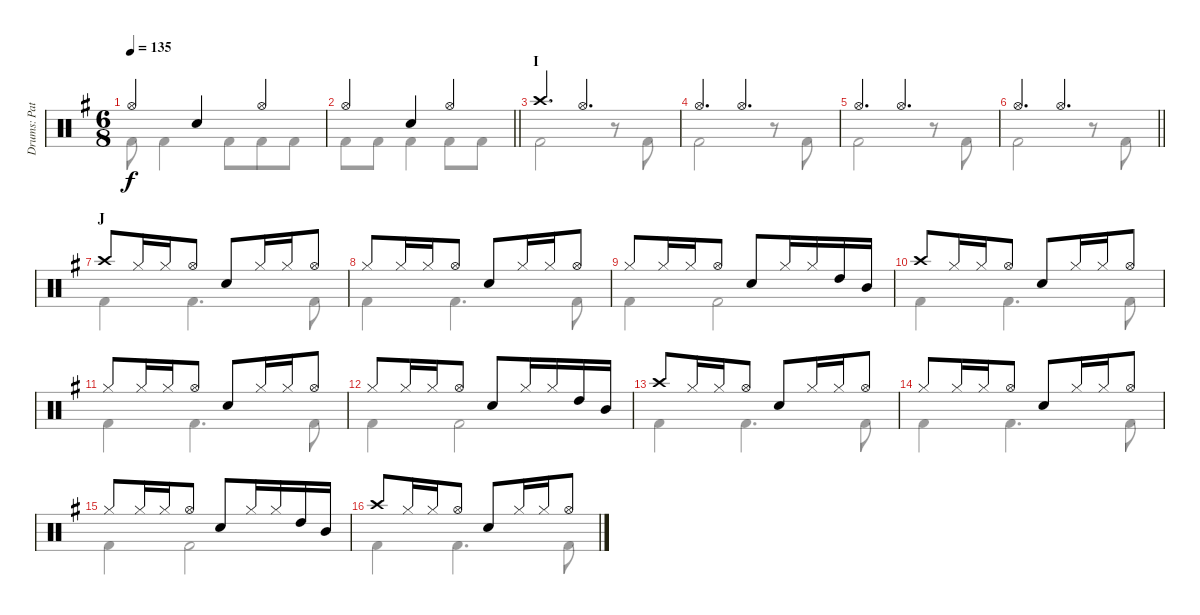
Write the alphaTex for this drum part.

\track ("Drums: Pat" "Drums: Pat") {instrument percussion}
\staff {score}
\articulation defaults
\voice
\ts (6 8)
\tempo 135
\clef neutral
\ks g "Hi-Hat (open)".4{dy f} "Snare (hit) 2".4 "Hi-Hat (open)".4
|
\barLineRight lightlight "Hi-Hat (open)".4 "Snare (hit) 2".4 "Hi-Hat (open)".4
|
\section ("" "I")
"Crash high (hit)".4{d} "Hi-Hat (open)"{acc b}.4{d} |
"Hi-Hat (open)".4{d} "Hi-Hat (open)".4{d} |
"Hi-Hat (open)".4{d} "Hi-Hat (open)"{acc b}.4{d} |
\barLineRight lightlight "Hi-Hat (open)".4{d} "Hi-Hat (open)".4{d}
|
\section ("" "J")
"Crash high (hit)".8 "Hi-Hat (closed)".16 "Hi-Hat (closed)".16 "Hi-Hat (open)".8 "Snare (hit) 2".8 "Hi-Hat (closed)".16 "Hi-Hat (closed)".16 "Hi-Hat (open)".8 |
"Hi-Hat (closed)".8 "Hi-Hat (closed)".16 "Hi-Hat (closed)".16 "Hi-Hat (open)".8 "Snare (hit) 2".8 "Hi-Hat (closed)".16 "Hi-Hat (closed)".16 "Hi-Hat (open)".8 |
"Hi-Hat (closed)".8 "Hi-Hat (closed)".16 "Hi-Hat (closed)".16 "Hi-Hat (open)".8 "Snare (hit) 2".8 "Hi-Hat (closed)".16 "Hi-Hat (closed)".16 "High Tom (hit)".16 "Mid Tom (hit)".16 |
"Crash high (hit)".8 "Hi-Hat (closed)".16 "Hi-Hat (closed)".16 "Hi-Hat (open)".8 "Snare (hit) 2".8 "Hi-Hat (closed)".16 "Hi-Hat (closed)".16 "Hi-Hat (open)".8 |
"Hi-Hat (closed)".8 "Hi-Hat (closed)".16 "Hi-Hat (closed)".16 "Hi-Hat (open)".8 "Snare (hit) 2".8 "Hi-Hat (closed)".16 "Hi-Hat (closed)".16 "Hi-Hat (open)".8 |
"Hi-Hat (closed)".8 "Hi-Hat (closed)".16 "Hi-Hat (closed)".16 "Hi-Hat (open)".8 "Snare (hit) 2".8 "Hi-Hat (closed)".16 "Hi-Hat (closed)".16 "High Tom (hit)".16 "Mid Tom (hit)".16 |
"Crash high (hit)".8 "Hi-Hat (closed)".16 "Hi-Hat (closed)".16 "Hi-Hat (open)".8 "Snare (hit) 2".8 "Hi-Hat (closed)".16 "Hi-Hat (closed)".16 "Hi-Hat (open)".8 |
"Hi-Hat (closed)".8 "Hi-Hat (closed)".16 "Hi-Hat (closed)".16 "Hi-Hat (open)".8 "Snare (hit) 2".8 "Hi-Hat (closed)".16 "Hi-Hat (closed)".16 "Hi-Hat (open)".8 |
"Hi-Hat (closed)".8 "Hi-Hat (closed)".16 "Hi-Hat (closed)".16 "Hi-Hat (open)".8 "Snare (hit) 2".8 "Hi-Hat (closed)".16 "Hi-Hat (closed)".16 "High Tom (hit)".16 "Mid Tom (hit)".16 |
"Crash high (hit)".8 "Hi-Hat (closed)".16 "Hi-Hat (closed)".16 "Hi-Hat (open)".8 "Snare (hit) 2".8 "Hi-Hat (closed)".16 "Hi-Hat (closed)".16 "Hi-Hat (open)".8
\voice
\clef neutral
\ottava regular
\simile none
\ks g "Kick (hit) 2".8{dy f} "Kick (hit) 2".4 "Kick (hit) 2".8 "Kick (hit) 2".8 "Kick (hit) 2".8
|
\barLineRight lightlight "Kick (hit) 2".8 "Kick (hit) 2".8 "Kick (hit) 2".4 "Kick (hit) 2".8 "Kick (hit) 2".8
|
"Kick (hit) 2".2 r.8 "Kick (hit) 2".8 |
"Kick (hit) 2".2 r.8 "Kick (hit) 2".8 |
"Kick (hit) 2".2 r.8 "Kick (hit) 2".8 |
\barLineRight lightlight "Kick (hit) 2".2
r.8 "Kick (hit) 2".8 |
"Kick (hit) 2".4 "Kick (hit) 2".4{d} "Kick (hit) 2".8 |
"Kick (hit) 2".4 "Kick (hit) 2".4{d} "Kick (hit) 2".8 |
"Kick (hit) 2".4 "Kick (hit) 2".2 |
"Kick (hit) 2".4 "Kick (hit) 2".4{d} "Kick (hit) 2".8 |
"Kick (hit) 2".4 "Kick (hit) 2".4{d} "Kick (hit) 2".8 |
"Kick (hit) 2".4 "Kick (hit) 2".2 |
"Kick (hit) 2".4 "Kick (hit) 2".4{d} "Kick (hit) 2".8 |
"Kick (hit) 2".4 "Kick (hit) 2".4{d} "Kick (hit) 2".8 |
"Kick (hit) 2".4 "Kick (hit) 2".2 |
"Kick (hit) 2".4 "Kick (hit) 2".4{d} "Kick (hit) 2".8
